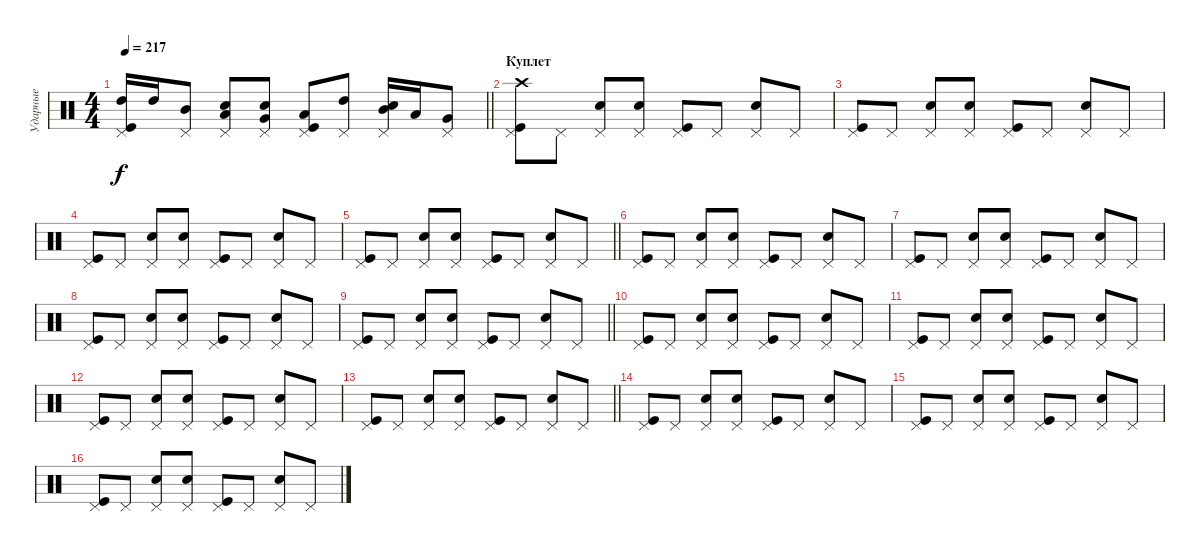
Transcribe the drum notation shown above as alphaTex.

\track ("Ударные" "Ударные") {instrument percussion}
\staff {score}
\articulation defaults
\ts (4 4)
\tempo 217
\clef neutral
\barLineRight lightlight
\ks c
("Pedal Hi-Hat (hit)" "Kick (hit)" "High Tom (hit)").16{dy f} "High Tom (hit)".16 ("Pedal Hi-Hat (hit)" "Mid Tom (hit)").8 ("Pedal Hi-Hat (hit)" "Snare (hit) 2" "Low Tom (hit)").8 ("Pedal Hi-Hat (hit)" "Snare (hit) 2" "Very Low Tom (hit)").8 ("Pedal Hi-Hat (hit)" "Kick (hit)" "Low Tom (hit)").8 ("Pedal Hi-Hat (hit)" "High Tom (hit)").8 ("Pedal Hi-Hat (hit)" "Snare (hit) 2" "Mid Tom (hit)").16 "Low Tom (hit)".16 ("Pedal Hi-Hat (hit)" "Very Low Tom (hit)").8 |
\section ("" "Куплет")
("Pedal Hi-Hat (hit)" "Kick (hit)" "Crash high (hit)").8 "Pedal Hi-Hat (hit)".8 ("Pedal Hi-Hat (hit)" "Snare (hit) 2").8 ("Pedal Hi-Hat (hit)" "Snare (hit) 2").8 ("Pedal Hi-Hat (hit)" "Kick (hit)").8 "Pedal Hi-Hat (hit)".8 ("Pedal Hi-Hat (hit)" "Snare (hit) 2").8 "Pedal Hi-Hat (hit)".8 |
("Pedal Hi-Hat (hit)" "Kick (hit)").8 "Pedal Hi-Hat (hit)".8 ("Pedal Hi-Hat (hit)" "Snare (hit) 2").8 ("Pedal Hi-Hat (hit)" "Snare (hit) 2").8 ("Pedal Hi-Hat (hit)" "Kick (hit)").8 "Pedal Hi-Hat (hit)".8 ("Pedal Hi-Hat (hit)" "Snare (hit) 2").8 "Pedal Hi-Hat (hit)".8 |
("Pedal Hi-Hat (hit)" "Kick (hit)").8 "Pedal Hi-Hat (hit)".8 ("Pedal Hi-Hat (hit)" "Snare (hit) 2").8 ("Pedal Hi-Hat (hit)" "Snare (hit) 2").8 ("Pedal Hi-Hat (hit)" "Kick (hit)").8 "Pedal Hi-Hat (hit)".8 ("Pedal Hi-Hat (hit)" "Snare (hit) 2").8 "Pedal Hi-Hat (hit)".8 |
\barLineRight lightlight
("Pedal Hi-Hat (hit)" "Kick (hit)").8 "Pedal Hi-Hat (hit)".8 ("Pedal Hi-Hat (hit)" "Snare (hit) 2").8 ("Pedal Hi-Hat (hit)" "Snare (hit) 2").8 ("Pedal Hi-Hat (hit)" "Kick (hit)").8 "Pedal Hi-Hat (hit)".8 ("Pedal Hi-Hat (hit)" "Snare (hit) 2").8 "Pedal Hi-Hat (hit)".8 |
("Pedal Hi-Hat (hit)" "Kick (hit)").8 "Pedal Hi-Hat (hit)".8 ("Pedal Hi-Hat (hit)" "Snare (hit) 2").8 ("Pedal Hi-Hat (hit)" "Snare (hit) 2").8 ("Pedal Hi-Hat (hit)" "Kick (hit)").8 "Pedal Hi-Hat (hit)".8 ("Pedal Hi-Hat (hit)" "Snare (hit) 2").8 "Pedal Hi-Hat (hit)".8 |
("Pedal Hi-Hat (hit)" "Kick (hit)").8 "Pedal Hi-Hat (hit)".8 ("Pedal Hi-Hat (hit)" "Snare (hit) 2").8 ("Pedal Hi-Hat (hit)" "Snare (hit) 2").8 ("Pedal Hi-Hat (hit)" "Kick (hit)").8 "Pedal Hi-Hat (hit)".8 ("Pedal Hi-Hat (hit)" "Snare (hit) 2").8 "Pedal Hi-Hat (hit)".8 |
("Pedal Hi-Hat (hit)" "Kick (hit)").8 "Pedal Hi-Hat (hit)".8 ("Pedal Hi-Hat (hit)" "Snare (hit) 2").8 ("Pedal Hi-Hat (hit)" "Snare (hit) 2").8 ("Pedal Hi-Hat (hit)" "Kick (hit)").8 "Pedal Hi-Hat (hit)".8 ("Pedal Hi-Hat (hit)" "Snare (hit) 2").8 "Pedal Hi-Hat (hit)".8 |
\barLineRight lightlight
("Pedal Hi-Hat (hit)" "Kick (hit)").8 "Pedal Hi-Hat (hit)".8 ("Pedal Hi-Hat (hit)" "Snare (hit) 2").8 ("Pedal Hi-Hat (hit)" "Snare (hit) 2").8 ("Pedal Hi-Hat (hit)" "Kick (hit)").8 "Pedal Hi-Hat (hit)".8 ("Pedal Hi-Hat (hit)" "Snare (hit) 2").8 "Pedal Hi-Hat (hit)".8 |
("Pedal Hi-Hat (hit)" "Kick (hit)").8 "Pedal Hi-Hat (hit)".8 ("Pedal Hi-Hat (hit)" "Snare (hit) 2").8 ("Pedal Hi-Hat (hit)" "Snare (hit) 2").8 ("Pedal Hi-Hat (hit)" "Kick (hit)").8 "Pedal Hi-Hat (hit)".8 ("Pedal Hi-Hat (hit)" "Snare (hit) 2").8 "Pedal Hi-Hat (hit)".8 |
("Pedal Hi-Hat (hit)" "Kick (hit)").8 "Pedal Hi-Hat (hit)".8 ("Pedal Hi-Hat (hit)" "Snare (hit) 2").8 ("Pedal Hi-Hat (hit)" "Snare (hit) 2").8 ("Pedal Hi-Hat (hit)" "Kick (hit)").8 "Pedal Hi-Hat (hit)".8 ("Pedal Hi-Hat (hit)" "Snare (hit) 2").8 "Pedal Hi-Hat (hit)".8 |
("Pedal Hi-Hat (hit)" "Kick (hit)").8 "Pedal Hi-Hat (hit)".8 ("Pedal Hi-Hat (hit)" "Snare (hit) 2").8 ("Pedal Hi-Hat (hit)" "Snare (hit) 2").8 ("Pedal Hi-Hat (hit)" "Kick (hit)").8 "Pedal Hi-Hat (hit)".8 ("Pedal Hi-Hat (hit)" "Snare (hit) 2").8 "Pedal Hi-Hat (hit)".8 |
\barLineRight lightlight
("Pedal Hi-Hat (hit)" "Kick (hit)").8 "Pedal Hi-Hat (hit)".8 ("Pedal Hi-Hat (hit)" "Snare (hit) 2").8 ("Pedal Hi-Hat (hit)" "Snare (hit) 2").8 ("Pedal Hi-Hat (hit)" "Kick (hit)").8 "Pedal Hi-Hat (hit)".8 ("Pedal Hi-Hat (hit)" "Snare (hit) 2").8 "Pedal Hi-Hat (hit)".8 |
("Pedal Hi-Hat (hit)" "Kick (hit)").8 "Pedal Hi-Hat (hit)".8 ("Pedal Hi-Hat (hit)" "Snare (hit) 2").8 ("Pedal Hi-Hat (hit)" "Snare (hit) 2").8 ("Pedal Hi-Hat (hit)" "Kick (hit)").8 "Pedal Hi-Hat (hit)".8 ("Pedal Hi-Hat (hit)" "Snare (hit) 2").8 "Pedal Hi-Hat (hit)".8 |
("Pedal Hi-Hat (hit)" "Kick (hit)").8 "Pedal Hi-Hat (hit)".8 ("Pedal Hi-Hat (hit)" "Snare (hit) 2").8 ("Pedal Hi-Hat (hit)" "Snare (hit) 2").8 ("Pedal Hi-Hat (hit)" "Kick (hit)").8 "Pedal Hi-Hat (hit)".8 ("Pedal Hi-Hat (hit)" "Snare (hit) 2").8 "Pedal Hi-Hat (hit)".8 |
("Pedal Hi-Hat (hit)" "Kick (hit)").8 "Pedal Hi-Hat (hit)".8 ("Pedal Hi-Hat (hit)" "Snare (hit) 2").8 ("Pedal Hi-Hat (hit)" "Snare (hit) 2").8 ("Pedal Hi-Hat (hit)" "Kick (hit)").8 "Pedal Hi-Hat (hit)".8 ("Pedal Hi-Hat (hit)" "Snare (hit) 2").8 "Pedal Hi-Hat (hit)".8
